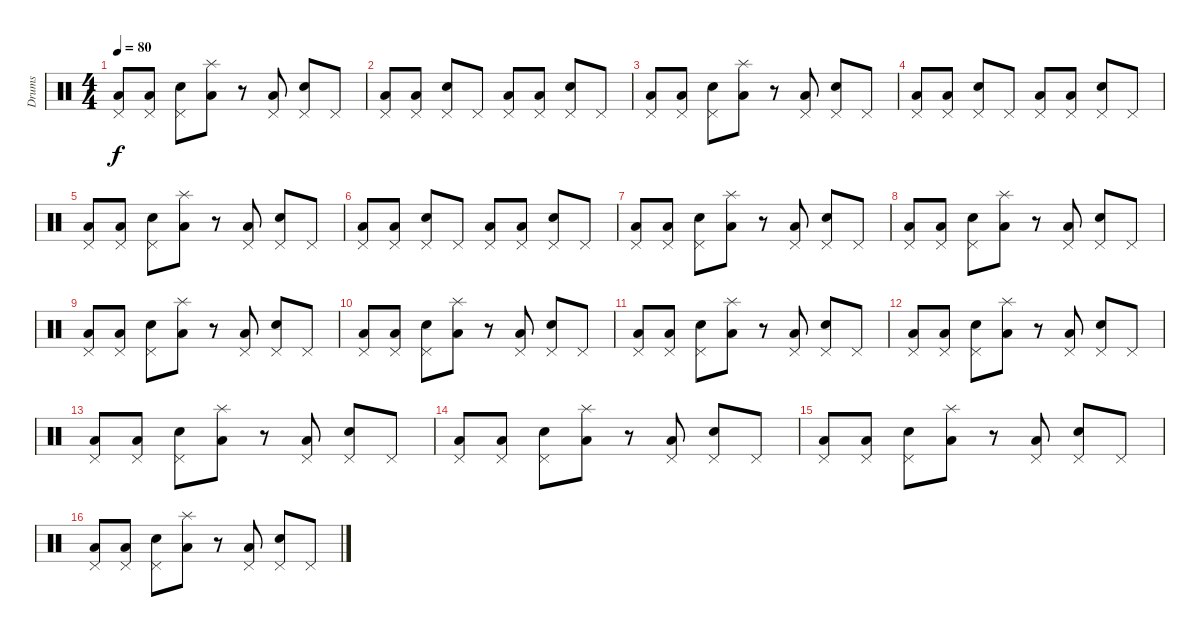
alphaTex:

\track ("Drums" "Drums") {instrument percussion}
\staff {score}
\articulation defaults
\ts (4 4)
\tempo 80
\clef neutral
\ks c
("Low Floor Tom (hit)" "Pedal Hi-Hat (hit)").8{dy f} ("Low Floor Tom (hit)" "Pedal Hi-Hat (hit)").8 ("Electric Snare (hit)" "Pedal Hi-Hat (hit)").8 ("Low Floor Tom (hit)" "Splash (hit)").8 r.8 ("Low Floor Tom (hit)" "Pedal Hi-Hat (hit)").8 ("Electric Snare (hit)" "Pedal Hi-Hat (hit)").8 "Pedal Hi-Hat (hit)".8 |
("Low Floor Tom (hit)" "Pedal Hi-Hat (hit)").8 ("Low Floor Tom (hit)" "Pedal Hi-Hat (hit)").8 ("Electric Snare (hit)" "Pedal Hi-Hat (hit)").8 "Pedal Hi-Hat (hit)".8 ("Low Floor Tom (hit)" "Pedal Hi-Hat (hit)").8 ("Low Floor Tom (hit)" "Pedal Hi-Hat (hit)").8 ("Electric Snare (hit)" "Pedal Hi-Hat (hit)").8 "Pedal Hi-Hat (hit)".8 |
("Low Floor Tom (hit)" "Pedal Hi-Hat (hit)").8 ("Low Floor Tom (hit)" "Pedal Hi-Hat (hit)").8 ("Electric Snare (hit)" "Pedal Hi-Hat (hit)").8 ("Low Floor Tom (hit)" "Splash (hit)").8 r.8 ("Low Floor Tom (hit)" "Pedal Hi-Hat (hit)").8 ("Electric Snare (hit)" "Pedal Hi-Hat (hit)").8 "Pedal Hi-Hat (hit)".8 |
("Low Floor Tom (hit)" "Pedal Hi-Hat (hit)").8 ("Low Floor Tom (hit)" "Pedal Hi-Hat (hit)").8 ("Electric Snare (hit)" "Pedal Hi-Hat (hit)").8 "Pedal Hi-Hat (hit)".8 ("Low Floor Tom (hit)" "Pedal Hi-Hat (hit)").8 ("Low Floor Tom (hit)" "Pedal Hi-Hat (hit)").8 ("Electric Snare (hit)" "Pedal Hi-Hat (hit)").8 "Pedal Hi-Hat (hit)".8 |
("Low Floor Tom (hit)" "Pedal Hi-Hat (hit)").8 ("Low Floor Tom (hit)" "Pedal Hi-Hat (hit)").8 ("Electric Snare (hit)" "Pedal Hi-Hat (hit)").8 ("Low Floor Tom (hit)" "Splash (hit)").8 r.8 ("Low Floor Tom (hit)" "Pedal Hi-Hat (hit)").8 ("Electric Snare (hit)" "Pedal Hi-Hat (hit)").8 "Pedal Hi-Hat (hit)".8 |
("Low Floor Tom (hit)" "Pedal Hi-Hat (hit)").8 ("Low Floor Tom (hit)" "Pedal Hi-Hat (hit)").8 ("Electric Snare (hit)" "Pedal Hi-Hat (hit)").8 "Pedal Hi-Hat (hit)".8 ("Low Floor Tom (hit)" "Pedal Hi-Hat (hit)").8 ("Low Floor Tom (hit)" "Pedal Hi-Hat (hit)").8 ("Electric Snare (hit)" "Pedal Hi-Hat (hit)").8 "Pedal Hi-Hat (hit)".8 |
("Low Floor Tom (hit)" "Pedal Hi-Hat (hit)").8 ("Low Floor Tom (hit)" "Pedal Hi-Hat (hit)").8 ("Electric Snare (hit)" "Pedal Hi-Hat (hit)").8 ("Low Floor Tom (hit)" "Splash (hit)").8 r.8 ("Low Floor Tom (hit)" "Pedal Hi-Hat (hit)").8 ("Electric Snare (hit)" "Pedal Hi-Hat (hit)").8 "Pedal Hi-Hat (hit)".8 |
("Low Floor Tom (hit)" "Pedal Hi-Hat (hit)").8 ("Low Floor Tom (hit)" "Pedal Hi-Hat (hit)").8 ("Electric Snare (hit)" "Pedal Hi-Hat (hit)").8 ("Low Floor Tom (hit)" "Splash (hit)").8 r.8 ("Low Floor Tom (hit)" "Pedal Hi-Hat (hit)").8 ("Electric Snare (hit)" "Pedal Hi-Hat (hit)").8 "Pedal Hi-Hat (hit)".8 |
("Low Floor Tom (hit)" "Pedal Hi-Hat (hit)").8 ("Low Floor Tom (hit)" "Pedal Hi-Hat (hit)").8 ("Electric Snare (hit)" "Pedal Hi-Hat (hit)").8 ("Low Floor Tom (hit)" "Splash (hit)").8 r.8 ("Low Floor Tom (hit)" "Pedal Hi-Hat (hit)").8 ("Electric Snare (hit)" "Pedal Hi-Hat (hit)").8 "Pedal Hi-Hat (hit)".8 |
("Low Floor Tom (hit)" "Pedal Hi-Hat (hit)").8 ("Low Floor Tom (hit)" "Pedal Hi-Hat (hit)").8 ("Electric Snare (hit)" "Pedal Hi-Hat (hit)").8 ("Low Floor Tom (hit)" "Splash (hit)").8 r.8 ("Low Floor Tom (hit)" "Pedal Hi-Hat (hit)").8 ("Electric Snare (hit)" "Pedal Hi-Hat (hit)").8 "Pedal Hi-Hat (hit)".8 |
("Low Floor Tom (hit)" "Pedal Hi-Hat (hit)").8 ("Low Floor Tom (hit)" "Pedal Hi-Hat (hit)").8 ("Electric Snare (hit)" "Pedal Hi-Hat (hit)").8 ("Low Floor Tom (hit)" "Splash (hit)").8 r.8 ("Low Floor Tom (hit)" "Pedal Hi-Hat (hit)").8 ("Electric Snare (hit)" "Pedal Hi-Hat (hit)").8 "Pedal Hi-Hat (hit)".8 |
("Low Floor Tom (hit)" "Pedal Hi-Hat (hit)").8 ("Low Floor Tom (hit)" "Pedal Hi-Hat (hit)").8 ("Electric Snare (hit)" "Pedal Hi-Hat (hit)").8 ("Low Floor Tom (hit)" "Splash (hit)").8 r.8 ("Low Floor Tom (hit)" "Pedal Hi-Hat (hit)").8 ("Electric Snare (hit)" "Pedal Hi-Hat (hit)").8 "Pedal Hi-Hat (hit)".8 |
("Low Floor Tom (hit)" "Pedal Hi-Hat (hit)").8 ("Low Floor Tom (hit)" "Pedal Hi-Hat (hit)").8 ("Electric Snare (hit)" "Pedal Hi-Hat (hit)").8 ("Low Floor Tom (hit)" "Splash (hit)").8 r.8 ("Low Floor Tom (hit)" "Pedal Hi-Hat (hit)").8 ("Electric Snare (hit)" "Pedal Hi-Hat (hit)").8 "Pedal Hi-Hat (hit)".8 |
("Low Floor Tom (hit)" "Pedal Hi-Hat (hit)").8 ("Low Floor Tom (hit)" "Pedal Hi-Hat (hit)").8 ("Electric Snare (hit)" "Pedal Hi-Hat (hit)").8 ("Low Floor Tom (hit)" "Splash (hit)").8 r.8 ("Low Floor Tom (hit)" "Pedal Hi-Hat (hit)").8 ("Electric Snare (hit)" "Pedal Hi-Hat (hit)").8 "Pedal Hi-Hat (hit)".8 |
("Low Floor Tom (hit)" "Pedal Hi-Hat (hit)").8 ("Low Floor Tom (hit)" "Pedal Hi-Hat (hit)").8 ("Electric Snare (hit)" "Pedal Hi-Hat (hit)").8 ("Low Floor Tom (hit)" "Splash (hit)").8 r.8 ("Low Floor Tom (hit)" "Pedal Hi-Hat (hit)").8 ("Electric Snare (hit)" "Pedal Hi-Hat (hit)").8 "Pedal Hi-Hat (hit)".8 |
("Low Floor Tom (hit)" "Pedal Hi-Hat (hit)").8 ("Low Floor Tom (hit)" "Pedal Hi-Hat (hit)").8 ("Electric Snare (hit)" "Pedal Hi-Hat (hit)").8 ("Low Floor Tom (hit)" "Splash (hit)").8 r.8 ("Low Floor Tom (hit)" "Pedal Hi-Hat (hit)").8 ("Electric Snare (hit)" "Pedal Hi-Hat (hit)").8 "Pedal Hi-Hat (hit)".8
